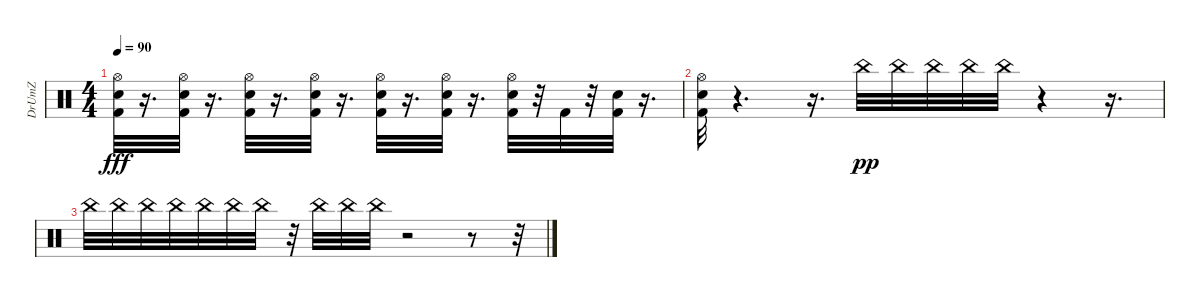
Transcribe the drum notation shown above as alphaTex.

\track ("DrUmZ" "DrUmZ") {instrument percussion}
\staff {score}
\articulation defaults
\ts (4 4)
\tempo 90
\clef neutral
\ks c
("Hi-Hat (open)" "Kick (hit) 2" "Electric Snare (hit)").32{dy fff} r.16{d} ("Electric Snare (hit)" "Kick (hit) 2" "Hi-Hat (open)").32 r.16{d} ("Electric Snare (hit)" "Kick (hit) 2" "Hi-Hat (open)").32 r.16{d} ("Electric Snare (hit)" "Kick (hit) 2" "Hi-Hat (open)").32 r.16{d} ("Electric Snare (hit)" "Kick (hit) 2" "Hi-Hat (open)").32 r.16{d} ("Electric Snare (hit)" "Kick (hit) 2" "Hi-Hat (open)").32 r.16{d} ("Electric Snare (hit)" "Kick (hit) 2" "Hi-Hat (open)").32 r.32 "Kick (hit) 2".32 r.32 ("Electric Snare (hit)" "Kick (hit) 2").32 r.16{d} |
("Electric Snare (hit)" "Hi-Hat (open)" "Kick (hit) 2").32 r.4{d} r.16{d} "China (hit)".32{dy pp} "China (hit)".32 "China (hit)".32 "China (hit)".32 "China (hit)".32 r.4 r.16{d} |
"China (hit)".32 "China (hit)".32 "China (hit)".32 "China (hit)".32 "China (hit)".32 "China (hit)".32 "China (hit)".32 r.32 "China (hit)".32 "China (hit)".32 "China (hit)".32 r.2 r.8 r.32
